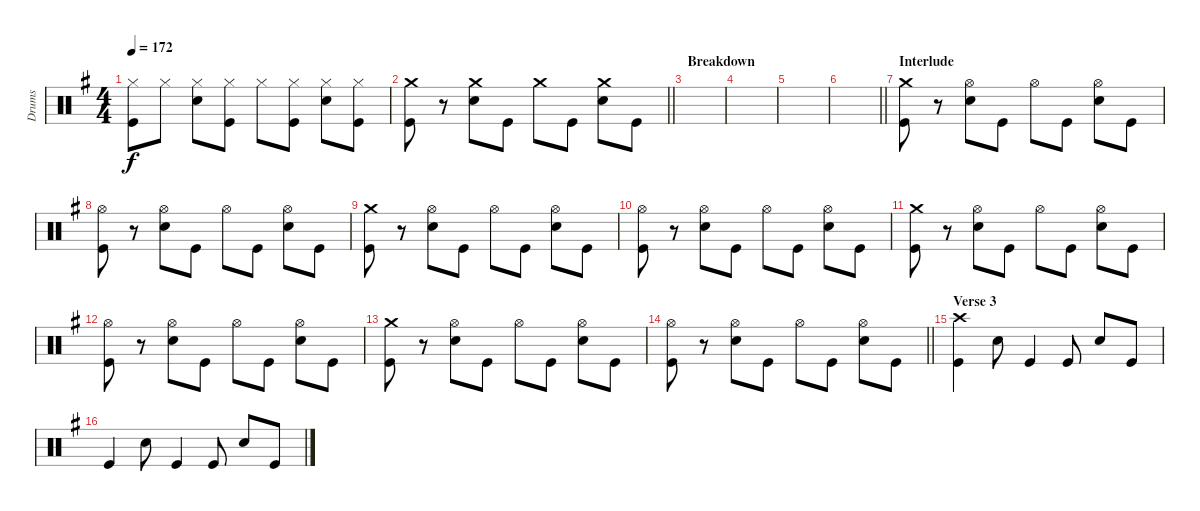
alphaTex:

\track ("Drums" "Drums") {instrument percussion}
\staff {score}
\articulation defaults
\ts (4 4)
\tempo 172
\clef neutral
\ks g
("Hi-Hat (closed)" "Kick (hit)").8{dy f} "Hi-Hat (closed)".8 ("Hi-Hat (closed)" "Snare (hit) 2").8 ("Hi-Hat (closed)" "Kick (hit)").8 "Hi-Hat (closed)".8 ("Hi-Hat (closed)" "Kick (hit)").8 ("Hi-Hat (closed)" "Snare (hit) 2").8 ("Hi-Hat (closed)" "Kick (hit)").8 |
\barLineRight lightlight
("Crash medium (hit)" "Kick (hit)").8 r.8 ("Crash medium (hit)" "Snare (hit) 2").8 "Kick (hit)".8 "Crash medium (hit)".8 "Kick (hit)".8 ("Crash medium (hit)" "Snare (hit) 2").8 "Kick (hit)".8 |
\section ("" "Breakdown")
|
|
|
\barLineRight lightlight
|
\section ("" "Interlude")
("Crash medium (hit)" "Kick (hit)").8 r.8 ("Hi-Hat (open)" "Snare (hit) 2").8 "Kick (hit)".8 "Hi-Hat (open)".8 "Kick (hit)".8 ("Hi-Hat (open)" "Snare (hit) 2").8 "Kick (hit)".8 |
("Hi-Hat (open)" "Kick (hit)").8 r.8 ("Hi-Hat (open)" "Snare (hit) 2").8 "Kick (hit)".8 "Hi-Hat (open)".8 "Kick (hit)".8 ("Hi-Hat (open)" "Snare (hit) 2").8 "Kick (hit)".8 |
("Crash medium (hit)" "Kick (hit)").8 r.8 ("Hi-Hat (open)" "Snare (hit) 2").8 "Kick (hit)".8 "Hi-Hat (open)".8 "Kick (hit)".8 ("Hi-Hat (open)" "Snare (hit) 2").8 "Kick (hit)".8 |
("Hi-Hat (open)" "Kick (hit)").8 r.8 ("Hi-Hat (open)" "Snare (hit) 2").8 "Kick (hit)".8 "Hi-Hat (open)".8 "Kick (hit)".8 ("Hi-Hat (open)" "Snare (hit) 2").8 "Kick (hit)".8 |
("Crash medium (hit)" "Kick (hit)").8 r.8 ("Hi-Hat (open)" "Snare (hit) 2").8 "Kick (hit)".8 "Hi-Hat (open)".8 "Kick (hit)".8 ("Hi-Hat (open)" "Snare (hit) 2").8 "Kick (hit)".8 |
("Hi-Hat (open)" "Kick (hit)").8 r.8 ("Hi-Hat (open)" "Snare (hit) 2").8 "Kick (hit)".8 "Hi-Hat (open)".8 "Kick (hit)".8 ("Hi-Hat (open)" "Snare (hit) 2").8 "Kick (hit)".8 |
("Crash medium (hit)" "Kick (hit)").8 r.8 ("Hi-Hat (open)" "Snare (hit) 2").8 "Kick (hit)".8 "Hi-Hat (open)".8 "Kick (hit)".8 ("Hi-Hat (open)" "Snare (hit) 2").8 "Kick (hit)".8 |
\barLineRight lightlight
("Hi-Hat (open)" "Kick (hit)").8 r.8 ("Hi-Hat (open)" "Snare (hit) 2").8 "Kick (hit)".8 "Hi-Hat (open)".8 "Kick (hit)".8 ("Hi-Hat (open)" "Snare (hit) 2").8 "Kick (hit)".8 |
\section ("" "Verse 3")
("Crash high (hit)" "Kick (hit)").4 "Snare (hit) 2".8 "Kick (hit)".4 "Kick (hit)".8 "Snare (hit) 2".8 "Kick (hit)".8 |
"Kick (hit)".4 "Snare (hit) 2".8 "Kick (hit)".4 "Kick (hit)".8 "Snare (hit) 2".8 "Kick (hit)".8
